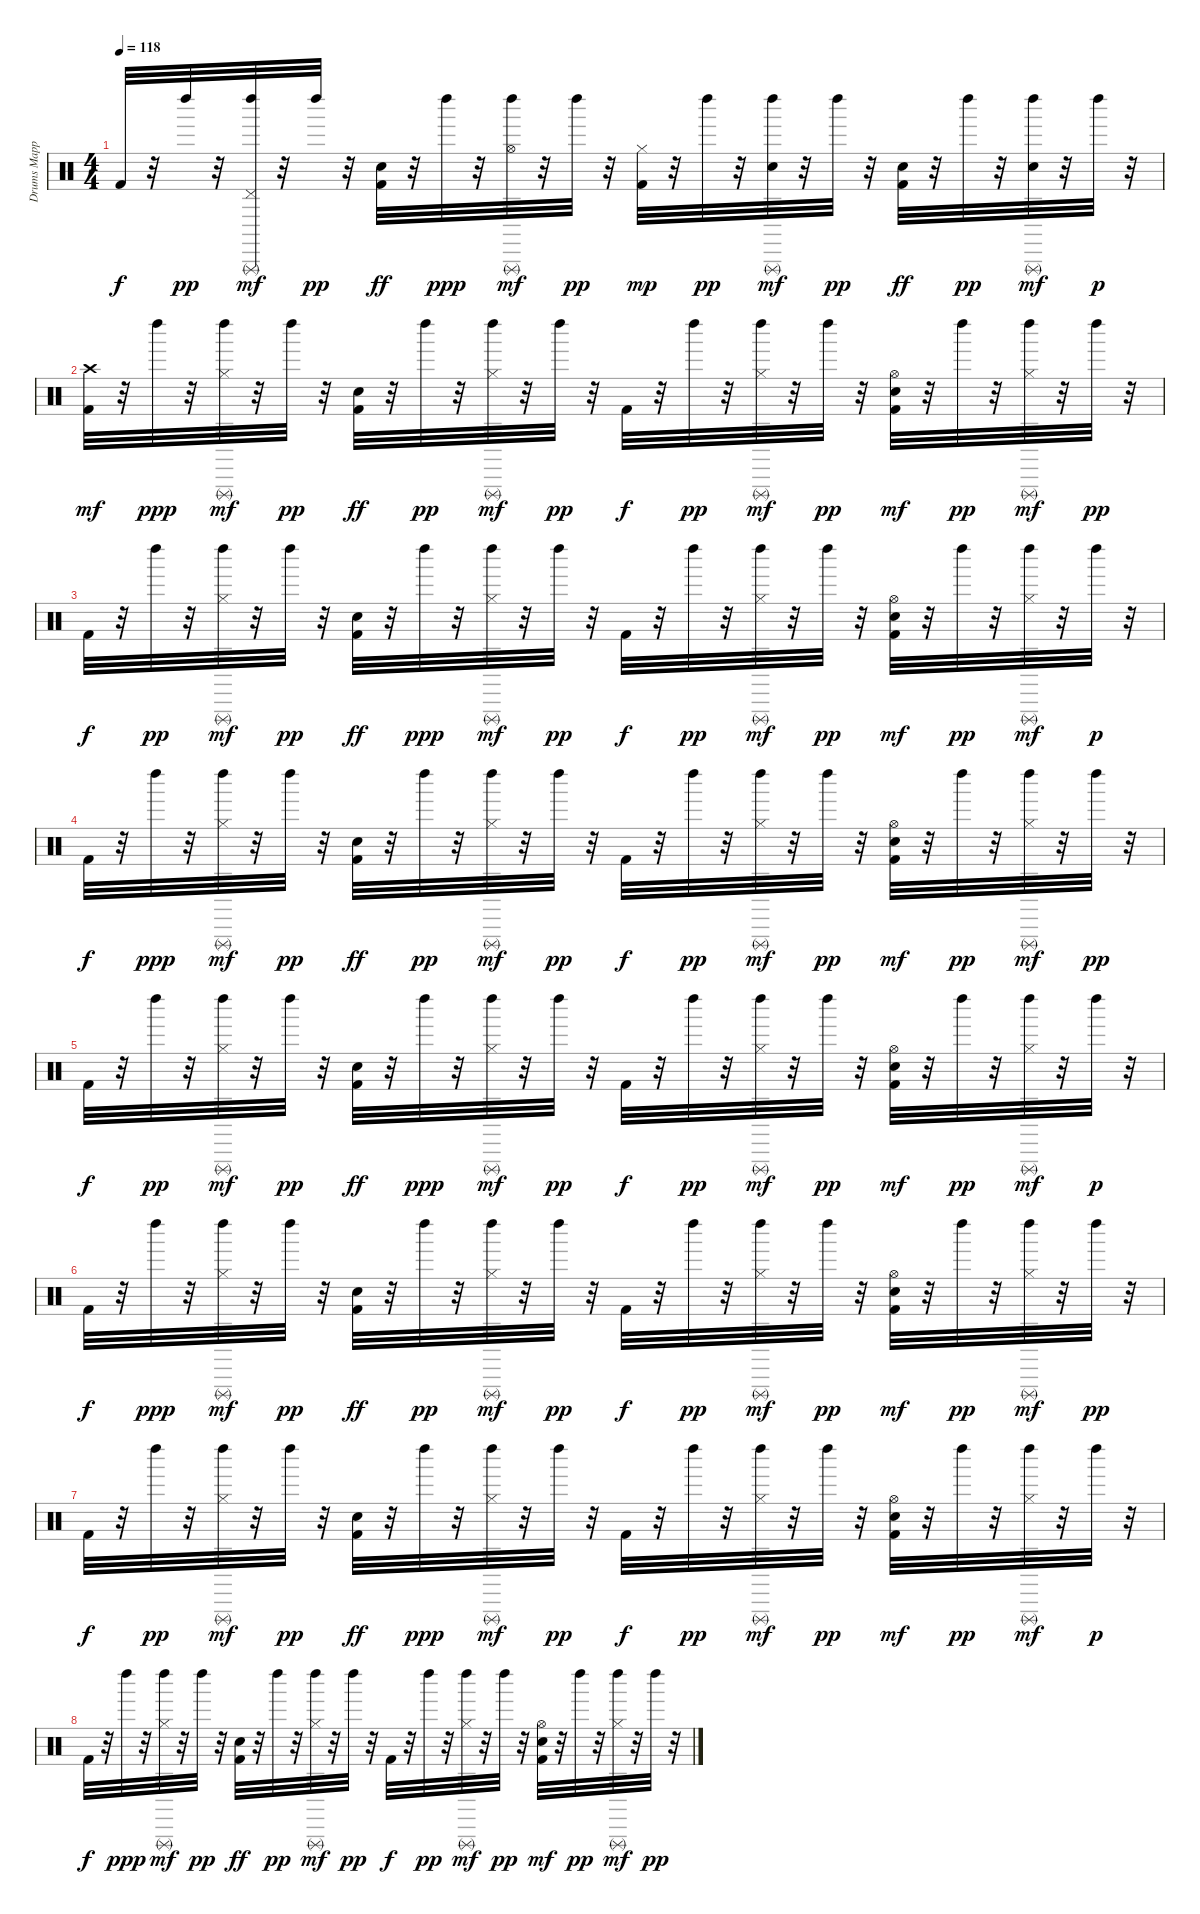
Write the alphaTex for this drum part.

\track ("Drums Mapped*merged" "Drums Mapp") {instrument percussion}
\staff {score}
\articulation defaults
\ts (4 4)
\tempo 118
\clef neutral
\ks c "Kick (hit) 2".32{dy f}
r.32 "Left Maraca (hit)".32{dy pp} r.32 ("Pedal Hi-Hat (hit)" "Left Maraca (hit)" "Triangle (rnute)").32{dy mf} r.32 "Left Maraca (hit)".32{dy pp} r.32 ("Kick (hit) 2" "Snare (hit) 2").32{dy ff} r.32 "Left Maraca (hit)".32{dy ppp} r.32 ("Hi-Hat (open)" "Left Maraca (hit)" "Triangle (rnute)").32{dy mf} r.32 "Left Maraca (hit)".32{dy pp} r.32 ("Kick (hit) 2" "Hi-Hat (closed)").32{dy mp} r.32 "Left Maraca (hit)".32{dy pp} r.32 ("Snare (hit) 2" "Left Maraca (hit)" "Triangle (rnute)").32{dy mf} r.32 "Left Maraca (hit)".32{dy pp} r.32 ("Kick (hit) 2" "Snare (hit) 2").32{dy ff} r.32 "Left Maraca (hit)".32{dy pp} r.32 ("Snare (hit) 2" "Left Maraca (hit)" "Triangle (rnute)").32{dy mf} r.32 "Left Maraca (hit)".32{dy p} r.32 |
("Kick (hit) 2" "Crash high (hit)").32{dy mf} r.32 "Left Maraca (hit)".32{dy ppp} r.32 ("Hi-Hat (closed)" "Left Maraca (hit)" "Triangle (rnute)").32{dy mf} r.32 "Left Maraca (hit)".32{dy pp} r.32 ("Kick (hit) 2" "Snare (hit) 2").32{dy ff} r.32 "Left Maraca (hit)".32{dy pp} r.32 ("Hi-Hat (closed)" "Left Maraca (hit)" "Triangle (rnute)").32{dy mf} r.32 "Left Maraca (hit)".32{dy pp} r.32 "Kick (hit) 2".32{dy f} r.32 "Left Maraca (hit)".32{dy pp} r.32 ("Hi-Hat (closed)" "Left Maraca (hit)" "Triangle (rnute)").32{dy mf} r.32 "Left Maraca (hit)".32{dy pp} r.32 ("Kick (hit) 2" "Snare (hit) 2" "Hi-Hat (open)").32{dy mf} r.32 "Left Maraca (hit)".32{dy pp} r.32 ("Hi-Hat (closed)" "Left Maraca (hit)" "Triangle (rnute)").32{dy mf} r.32 "Left Maraca (hit)".32{dy pp} r.32 |
"Kick (hit) 2".32{dy f} r.32 "Left Maraca (hit)".32{dy pp} r.32 ("Hi-Hat (closed)" "Left Maraca (hit)" "Triangle (rnute)").32{dy mf} r.32 "Left Maraca (hit)".32{dy pp} r.32 ("Kick (hit) 2" "Snare (hit) 2").32{dy ff} r.32 "Left Maraca (hit)".32{dy ppp} r.32 ("Hi-Hat (closed)" "Left Maraca (hit)" "Triangle (rnute)").32{dy mf} r.32 "Left Maraca (hit)".32{dy pp} r.32 "Kick (hit) 2".32{dy f} r.32 "Left Maraca (hit)".32{dy pp} r.32 ("Hi-Hat (closed)" "Left Maraca (hit)" "Triangle (rnute)").32{dy mf} r.32 "Left Maraca (hit)".32{dy pp} r.32 ("Kick (hit) 2" "Snare (hit) 2" "Hi-Hat (open)").32{dy mf} r.32 "Left Maraca (hit)".32{dy pp} r.32 ("Hi-Hat (closed)" "Left Maraca (hit)" "Triangle (rnute)").32{dy mf} r.32 "Left Maraca (hit)".32{dy p} r.32 |
"Kick (hit) 2".32{dy f} r.32 "Left Maraca (hit)".32{dy ppp} r.32 ("Hi-Hat (closed)" "Left Maraca (hit)" "Triangle (rnute)").32{dy mf} r.32 "Left Maraca (hit)".32{dy pp} r.32 ("Kick (hit) 2" "Snare (hit) 2").32{dy ff} r.32 "Left Maraca (hit)".32{dy pp} r.32 ("Hi-Hat (closed)" "Left Maraca (hit)" "Triangle (rnute)").32{dy mf} r.32 "Left Maraca (hit)".32{dy pp} r.32 "Kick (hit) 2".32{dy f} r.32 "Left Maraca (hit)".32{dy pp} r.32 ("Hi-Hat (closed)" "Left Maraca (hit)" "Triangle (rnute)").32{dy mf} r.32 "Left Maraca (hit)".32{dy pp} r.32 ("Kick (hit) 2" "Snare (hit) 2" "Hi-Hat (open)").32{dy mf} r.32 "Left Maraca (hit)".32{dy pp} r.32 ("Hi-Hat (closed)" "Left Maraca (hit)" "Triangle (rnute)").32{dy mf} r.32 "Left Maraca (hit)".32{dy pp} r.32 |
"Kick (hit) 2".32{dy f} r.32 "Left Maraca (hit)".32{dy pp} r.32 ("Hi-Hat (closed)" "Left Maraca (hit)" "Triangle (rnute)").32{dy mf} r.32 "Left Maraca (hit)".32{dy pp} r.32 ("Kick (hit) 2" "Snare (hit) 2").32{dy ff} r.32 "Left Maraca (hit)".32{dy ppp} r.32 ("Hi-Hat (closed)" "Left Maraca (hit)" "Triangle (rnute)").32{dy mf} r.32 "Left Maraca (hit)".32{dy pp} r.32 "Kick (hit) 2".32{dy f} r.32 "Left Maraca (hit)".32{dy pp} r.32 ("Hi-Hat (closed)" "Left Maraca (hit)" "Triangle (rnute)").32{dy mf} r.32 "Left Maraca (hit)".32{dy pp} r.32 ("Kick (hit) 2" "Snare (hit) 2" "Hi-Hat (open)").32{dy mf} r.32 "Left Maraca (hit)".32{dy pp} r.32 ("Hi-Hat (closed)" "Left Maraca (hit)" "Triangle (rnute)").32{dy mf} r.32 "Left Maraca (hit)".32{dy p} r.32 |
"Kick (hit) 2".32{dy f} r.32 "Left Maraca (hit)".32{dy ppp} r.32 ("Hi-Hat (closed)" "Left Maraca (hit)" "Triangle (rnute)").32{dy mf} r.32 "Left Maraca (hit)".32{dy pp} r.32 ("Kick (hit) 2" "Snare (hit) 2").32{dy ff} r.32 "Left Maraca (hit)".32{dy pp} r.32 ("Hi-Hat (closed)" "Left Maraca (hit)" "Triangle (rnute)").32{dy mf} r.32 "Left Maraca (hit)".32{dy pp} r.32 "Kick (hit) 2".32{dy f} r.32 "Left Maraca (hit)".32{dy pp} r.32 ("Hi-Hat (closed)" "Left Maraca (hit)" "Triangle (rnute)").32{dy mf} r.32 "Left Maraca (hit)".32{dy pp} r.32 ("Kick (hit) 2" "Snare (hit) 2" "Hi-Hat (open)").32{dy mf} r.32 "Left Maraca (hit)".32{dy pp} r.32 ("Hi-Hat (closed)" "Left Maraca (hit)" "Triangle (rnute)").32{dy mf} r.32 "Left Maraca (hit)".32{dy pp} r.32 |
"Kick (hit) 2".32{dy f} r.32 "Left Maraca (hit)".32{dy pp} r.32 ("Hi-Hat (closed)" "Left Maraca (hit)" "Triangle (rnute)").32{dy mf} r.32 "Left Maraca (hit)".32{dy pp} r.32 ("Kick (hit) 2" "Snare (hit) 2").32{dy ff} r.32 "Left Maraca (hit)".32{dy ppp} r.32 ("Hi-Hat (closed)" "Left Maraca (hit)" "Triangle (rnute)").32{dy mf} r.32 "Left Maraca (hit)".32{dy pp} r.32 "Kick (hit) 2".32{dy f} r.32 "Left Maraca (hit)".32{dy pp} r.32 ("Hi-Hat (closed)" "Left Maraca (hit)" "Triangle (rnute)").32{dy mf} r.32 "Left Maraca (hit)".32{dy pp} r.32 ("Kick (hit) 2" "Snare (hit) 2" "Hi-Hat (open)").32{dy mf} r.32 "Left Maraca (hit)".32{dy pp} r.32 ("Hi-Hat (closed)" "Left Maraca (hit)" "Triangle (rnute)").32{dy mf} r.32 "Left Maraca (hit)".32{dy p} r.32 |
"Kick (hit) 2".32{dy f} r.32 "Left Maraca (hit)".32{dy ppp} r.32 ("Hi-Hat (closed)" "Left Maraca (hit)" "Triangle (rnute)").32{dy mf} r.32 "Left Maraca (hit)".32{dy pp} r.32 ("Kick (hit) 2" "Snare (hit) 2").32{dy ff} r.32 "Left Maraca (hit)".32{dy pp} r.32 ("Hi-Hat (closed)" "Left Maraca (hit)" "Triangle (rnute)").32{dy mf} r.32 "Left Maraca (hit)".32{dy pp} r.32 "Kick (hit) 2".32{dy f} r.32 "Left Maraca (hit)".32{dy pp} r.32 ("Hi-Hat (closed)" "Left Maraca (hit)" "Triangle (rnute)").32{dy mf} r.32 "Left Maraca (hit)".32{dy pp} r.32 ("Kick (hit) 2" "Snare (hit) 2" "Hi-Hat (open)").32{dy mf} r.32 "Left Maraca (hit)".32{dy pp} r.32 ("Hi-Hat (closed)" "Left Maraca (hit)" "Triangle (rnute)").32{dy mf} r.32 "Left Maraca (hit)".32{dy pp} r.32
